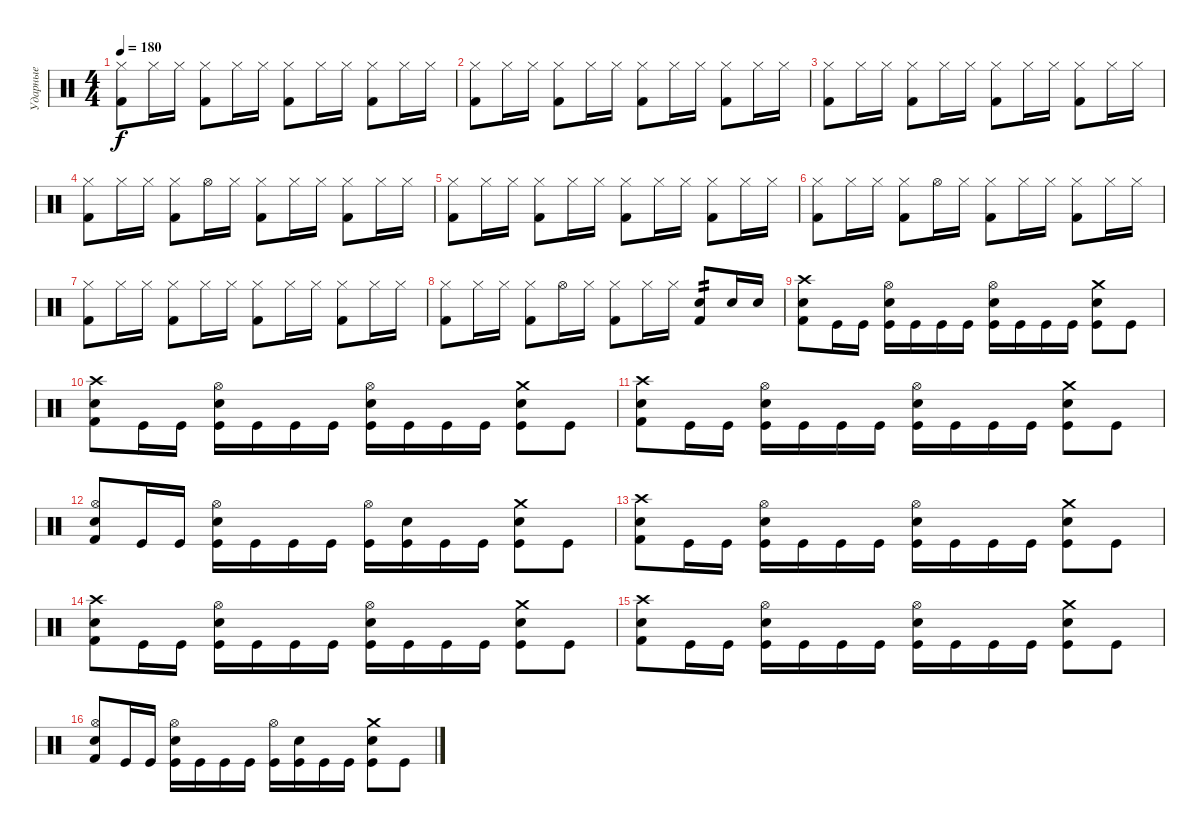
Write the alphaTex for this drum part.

\track ("Ударные" "Ударные") {instrument percussion}
\staff {score}
\articulation defaults
\ts (4 4)
\tempo 180
\clef neutral
\ks c
("Hi-Hat (closed)" "Kick (hit) 2").8{dy f} "Hi-Hat (closed)".16 "Hi-Hat (closed)".16 ("Hi-Hat (closed)" "Kick (hit) 2").8 "Hi-Hat (closed)".16 "Hi-Hat (closed)".16 ("Hi-Hat (closed)" "Kick (hit) 2").8 "Hi-Hat (closed)".16 "Hi-Hat (closed)".16 ("Hi-Hat (closed)" "Kick (hit) 2").8 "Hi-Hat (closed)".16 "Hi-Hat (closed)".16 |
("Hi-Hat (closed)" "Kick (hit) 2").8 "Hi-Hat (closed)".16 "Hi-Hat (closed)".16 ("Hi-Hat (closed)" "Kick (hit) 2").8 "Hi-Hat (closed)".16 "Hi-Hat (closed)".16 ("Hi-Hat (closed)" "Kick (hit) 2").8 "Hi-Hat (closed)".16 "Hi-Hat (closed)".16 ("Hi-Hat (closed)" "Kick (hit) 2").8 "Hi-Hat (closed)".16 "Hi-Hat (closed)".16 |
("Hi-Hat (closed)" "Kick (hit) 2").8 "Hi-Hat (closed)".16 "Hi-Hat (closed)".16 ("Hi-Hat (closed)" "Kick (hit) 2").8 "Hi-Hat (closed)".16 "Hi-Hat (closed)".16 ("Hi-Hat (closed)" "Kick (hit) 2").8 "Hi-Hat (closed)".16 "Hi-Hat (closed)".16 ("Hi-Hat (closed)" "Kick (hit) 2").8 "Hi-Hat (closed)".16 "Hi-Hat (closed)".16 |
("Hi-Hat (closed)" "Kick (hit) 2").8 "Hi-Hat (closed)".16 "Hi-Hat (closed)".16 ("Hi-Hat (closed)" "Kick (hit) 2").8 "Hi-Hat (open)".16 "Hi-Hat (closed)".16 ("Hi-Hat (closed)" "Kick (hit) 2").8 "Hi-Hat (closed)".16 "Hi-Hat (closed)".16 ("Hi-Hat (closed)" "Kick (hit) 2").8 "Hi-Hat (closed)".16 "Hi-Hat (closed)".16 |
("Hi-Hat (closed)" "Kick (hit) 2").8 "Hi-Hat (closed)".16 "Hi-Hat (closed)".16 ("Hi-Hat (closed)" "Kick (hit) 2").8 "Hi-Hat (closed)".16 "Hi-Hat (closed)".16 ("Hi-Hat (closed)" "Kick (hit) 2").8 "Hi-Hat (closed)".16 "Hi-Hat (closed)".16 ("Hi-Hat (closed)" "Kick (hit) 2").8 "Hi-Hat (closed)".16 "Hi-Hat (closed)".16 |
("Hi-Hat (closed)" "Kick (hit) 2").8 "Hi-Hat (closed)".16 "Hi-Hat (closed)".16 ("Hi-Hat (closed)" "Kick (hit) 2").8 "Hi-Hat (open)".16 "Hi-Hat (closed)".16 ("Hi-Hat (closed)" "Kick (hit) 2").8 "Hi-Hat (closed)".16 "Hi-Hat (closed)".16 ("Hi-Hat (closed)" "Kick (hit) 2").8 "Hi-Hat (closed)".16 "Hi-Hat (closed)".16 |
("Hi-Hat (closed)" "Kick (hit) 2").8 "Hi-Hat (closed)".16 "Hi-Hat (closed)".16 ("Hi-Hat (closed)" "Kick (hit) 2").8 "Hi-Hat (closed)".16 "Hi-Hat (closed)".16 ("Hi-Hat (closed)" "Kick (hit) 2").8 "Hi-Hat (closed)".16 "Hi-Hat (closed)".16 ("Hi-Hat (closed)" "Kick (hit) 2").8 "Hi-Hat (closed)".16 "Hi-Hat (closed)".16 |
("Hi-Hat (closed)" "Kick (hit) 2").8 "Hi-Hat (closed)".16 "Hi-Hat (closed)".16 ("Hi-Hat (closed)" "Kick (hit) 2").8 "Hi-Hat (open)".16 "Hi-Hat (closed)".16 ("Hi-Hat (closed)" "Kick (hit) 2").8 "Hi-Hat (closed)".16 "Hi-Hat (closed)".16 ("Electric Snare (hit)" "Kick (hit) 2").8{tp 2} "Electric Snare (hit)".16 "Electric Snare (hit)".16 |
("Crash high (hit)" "Electric Snare (hit)" "Kick (hit) 2").8 "Kick (hit)".16 "Kick (hit)".16 ("Hi-Hat (open)" "Electric Snare (hit)" "Kick (hit)").16 "Kick (hit)".16 "Kick (hit)".16 "Kick (hit)".16 ("Hi-Hat (open)" "Electric Snare (hit)" "Kick (hit)").16 "Kick (hit)".16 "Kick (hit)".16 "Kick (hit)".16 ("Crash medium (hit)" "Electric Snare (hit)" "Kick (hit)").8 "Kick (hit)".8 |
("Crash high (hit)" "Electric Snare (hit)" "Kick (hit) 2").8 "Kick (hit)".16 "Kick (hit)".16 ("Hi-Hat (open)" "Electric Snare (hit)" "Kick (hit)").16 "Kick (hit)".16 "Kick (hit)".16 "Kick (hit)".16 ("Hi-Hat (open)" "Electric Snare (hit)" "Kick (hit)").16 "Kick (hit)".16 "Kick (hit)".16 "Kick (hit)".16 ("Crash medium (hit)" "Electric Snare (hit)" "Kick (hit)").8 "Kick (hit)".8 |
("Crash high (hit)" "Electric Snare (hit)" "Kick (hit) 2").8 "Kick (hit)".16 "Kick (hit)".16 ("Hi-Hat (open)" "Electric Snare (hit)" "Kick (hit)").16 "Kick (hit)".16 "Kick (hit)".16 "Kick (hit)".16 ("Hi-Hat (open)" "Electric Snare (hit)" "Kick (hit)").16 "Kick (hit)".16 "Kick (hit)".16 "Kick (hit)".16 ("Crash medium (hit)" "Electric Snare (hit)" "Kick (hit)").8 "Kick (hit)".8 |
("Hi-Hat (open)" "Electric Snare (hit)" "Kick (hit) 2").8 "Kick (hit)".16 "Kick (hit)".16 ("Hi-Hat (open)" "Electric Snare (hit)" "Kick (hit)").16 "Kick (hit)".16 "Kick (hit)".16 "Kick (hit)".16 ("Hi-Hat (open)" "Kick (hit)").16 ("Electric Snare (hit)" "Kick (hit)").16 "Kick (hit)".16 "Kick (hit)".16 ("Crash medium (hit)" "Electric Snare (hit)" "Kick (hit)").8 "Kick (hit)".8 |
("Crash high (hit)" "Electric Snare (hit)" "Kick (hit) 2").8 "Kick (hit)".16 "Kick (hit)".16 ("Hi-Hat (open)" "Electric Snare (hit)" "Kick (hit)").16 "Kick (hit)".16 "Kick (hit)".16 "Kick (hit)".16 ("Hi-Hat (open)" "Electric Snare (hit)" "Kick (hit)").16 "Kick (hit)".16 "Kick (hit)".16 "Kick (hit)".16 ("Crash medium (hit)" "Electric Snare (hit)" "Kick (hit)").8 "Kick (hit)".8 |
("Crash high (hit)" "Electric Snare (hit)" "Kick (hit) 2").8 "Kick (hit)".16 "Kick (hit)".16 ("Hi-Hat (open)" "Electric Snare (hit)" "Kick (hit)").16 "Kick (hit)".16 "Kick (hit)".16 "Kick (hit)".16 ("Hi-Hat (open)" "Electric Snare (hit)" "Kick (hit)").16 "Kick (hit)".16 "Kick (hit)".16 "Kick (hit)".16 ("Crash medium (hit)" "Electric Snare (hit)" "Kick (hit)").8 "Kick (hit)".8 |
("Crash high (hit)" "Electric Snare (hit)" "Kick (hit) 2").8 "Kick (hit)".16 "Kick (hit)".16 ("Hi-Hat (open)" "Electric Snare (hit)" "Kick (hit)").16 "Kick (hit)".16 "Kick (hit)".16 "Kick (hit)".16 ("Hi-Hat (open)" "Electric Snare (hit)" "Kick (hit)").16 "Kick (hit)".16 "Kick (hit)".16 "Kick (hit)".16 ("Crash medium (hit)" "Electric Snare (hit)" "Kick (hit)").8 "Kick (hit)".8 |
("Hi-Hat (open)" "Electric Snare (hit)" "Kick (hit) 2").8 "Kick (hit)".16 "Kick (hit)".16 ("Hi-Hat (open)" "Electric Snare (hit)" "Kick (hit)").16 "Kick (hit)".16 "Kick (hit)".16 "Kick (hit)".16 ("Hi-Hat (open)" "Kick (hit)").16 ("Electric Snare (hit)" "Kick (hit)").16 "Kick (hit)".16 "Kick (hit)".16 ("Crash medium (hit)" "Electric Snare (hit)" "Kick (hit)").8 "Kick (hit)".8
